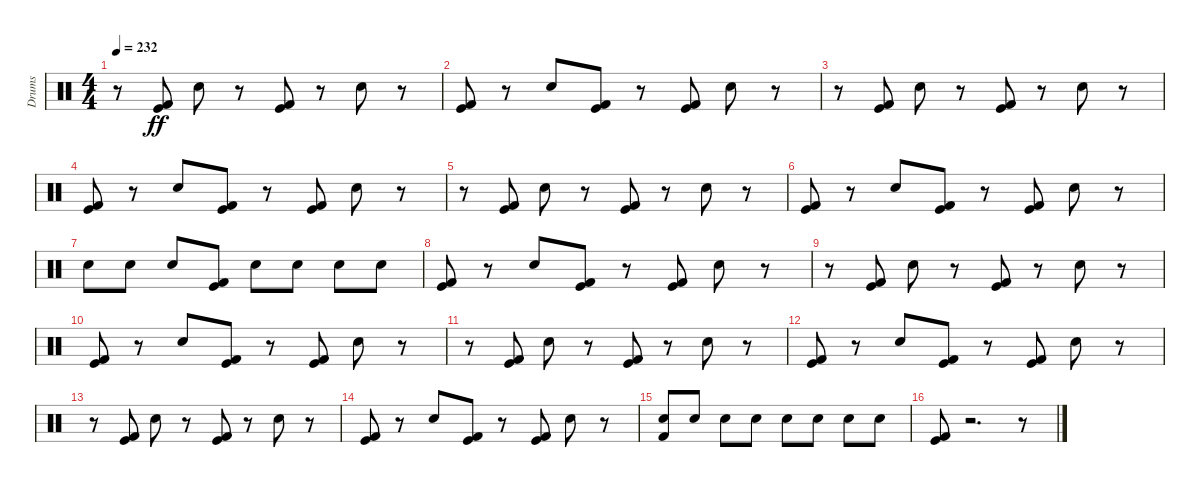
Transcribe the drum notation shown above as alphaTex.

\track ("Drums" "Drums") {instrument percussion}
\staff {score}
\articulation defaults
\ts (4 4)
\tempo 232
\clef neutral
\ks c
r.8{dy ff} ("Kick (hit)" "Kick (hit) 2").8 "Snare (hit) 2".8 r.8 ("Kick (hit)" "Kick (hit) 2").8 r.8 "Snare (hit) 2".8 r.8 |
("Kick (hit)" "Kick (hit) 2").8 r.8 "Snare (hit) 2".8 ("Kick (hit)" "Kick (hit) 2").8 r.8 ("Kick (hit)" "Kick (hit) 2").8 "Snare (hit) 2".8 r.8 |
r.8 ("Kick (hit)" "Kick (hit) 2").8 "Snare (hit) 2".8 r.8 ("Kick (hit)" "Kick (hit) 2").8 r.8 "Snare (hit) 2".8 r.8 |
("Kick (hit)" "Kick (hit) 2").8 r.8 "Snare (hit) 2".8 ("Kick (hit)" "Kick (hit) 2").8 r.8 ("Kick (hit)" "Kick (hit) 2").8 "Snare (hit) 2".8 r.8 |
r.8 ("Kick (hit)" "Kick (hit) 2").8 "Snare (hit) 2".8 r.8 ("Kick (hit)" "Kick (hit) 2").8 r.8 "Snare (hit) 2".8 r.8 |
("Kick (hit)" "Kick (hit) 2").8 r.8 "Snare (hit) 2".8 ("Kick (hit)" "Kick (hit) 2").8 r.8 ("Kick (hit)" "Kick (hit) 2").8 "Snare (hit) 2".8 r.8 |
"Snare (hit) 2".8 "Snare (hit) 2".8 "Snare (hit) 2".8 ("Kick (hit)" "Kick (hit) 2").8 "Snare (hit) 2".8 "Snare (hit) 2".8 "Snare (hit) 2".8 "Snare (hit) 2".8 |
("Kick (hit)" "Kick (hit) 2").8 r.8 "Snare (hit) 2".8 ("Kick (hit)" "Kick (hit) 2").8 r.8 ("Kick (hit)" "Kick (hit) 2").8 "Snare (hit) 2".8 r.8 |
r.8 ("Kick (hit)" "Kick (hit) 2").8 "Snare (hit) 2".8 r.8 ("Kick (hit)" "Kick (hit) 2").8 r.8 "Snare (hit) 2".8 r.8 |
("Kick (hit)" "Kick (hit) 2").8 r.8 "Snare (hit) 2".8 ("Kick (hit)" "Kick (hit) 2").8 r.8 ("Kick (hit)" "Kick (hit) 2").8 "Snare (hit) 2".8 r.8 |
r.8 ("Kick (hit)" "Kick (hit) 2").8 "Snare (hit) 2".8 r.8 ("Kick (hit)" "Kick (hit) 2").8 r.8 "Snare (hit) 2".8 r.8 |
("Kick (hit)" "Kick (hit) 2").8 r.8 "Snare (hit) 2".8 ("Kick (hit)" "Kick (hit) 2").8 r.8 ("Kick (hit)" "Kick (hit) 2").8 "Snare (hit) 2".8 r.8 |
r.8 ("Kick (hit)" "Kick (hit) 2").8 "Snare (hit) 2".8 r.8 ("Kick (hit)" "Kick (hit) 2").8 r.8 "Snare (hit) 2".8 r.8 |
("Kick (hit)" "Kick (hit) 2").8 r.8 "Snare (hit) 2".8 ("Kick (hit)" "Kick (hit) 2").8 r.8 ("Kick (hit)" "Kick (hit) 2").8 "Snare (hit) 2".8 r.8 |
("Kick (hit) 2" "Snare (hit) 2").8 "Snare (hit) 2".8 "Snare (hit) 2".8 "Snare (hit) 2".8 "Snare (hit) 2".8 "Snare (hit) 2".8 "Snare (hit) 2".8 "Snare (hit) 2".8 |
("Kick (hit)" "Kick (hit) 2").8 r.2{d} r.8
